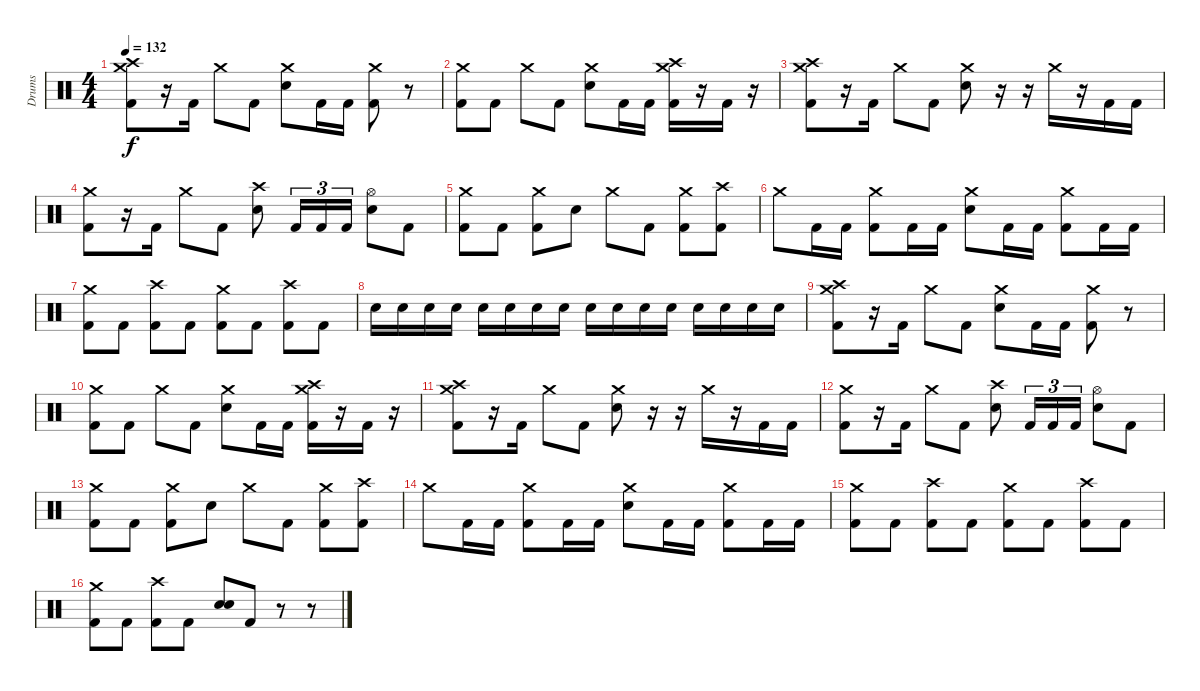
\track ("Drums" "Drums") {instrument percussion}
\staff {score}
\articulation defaults
\ts (4 4)
\tempo 132
\clef neutral
\ks c
("Crash medium (hit)" "Crash high (hit)" "Kick (hit) 2").8{dy f} r.16 "Kick (hit) 2".16 "Crash medium (hit)".8 "Kick (hit) 2".8 ("Crash medium (hit)" "Electric Snare (hit)").8 "Kick (hit) 2".16 "Kick (hit) 2".16 ("Crash medium (hit)" "Kick (hit) 2").8 r.8 |
("Crash medium (hit)" "Kick (hit) 2").8 "Kick (hit) 2".8 "Crash medium (hit)".8 "Kick (hit) 2".8 ("Crash medium (hit)" "Electric Snare (hit)").8 "Kick (hit) 2".16 "Kick (hit) 2".16 ("Crash medium (hit)" "Crash high (hit)" "Kick (hit) 2").16 r.16 "Kick (hit) 2".16 r.16 |
("Crash medium (hit)" "Crash high (hit)" "Kick (hit) 2").8 r.16 "Kick (hit) 2".16 "Crash medium (hit)".8 "Kick (hit) 2".8 ("Crash medium (hit)" "Electric Snare (hit)").8 r.16 r.16 "Crash medium (hit)".16 r.16 "Kick (hit) 2".16 "Kick (hit) 2".16 |
("Crash medium (hit)" "Kick (hit) 2").8 r.16 "Kick (hit) 2".16 "Crash medium (hit)".8 "Kick (hit) 2".8 ("Crash high (hit)" "Electric Snare (hit)").8 "Kick (hit) 2".16{tu (3 2)} "Kick (hit) 2".16{tu (3 2)} "Kick (hit) 2".16{tu (3 2)} ("Hi-Hat (open)" "Electric Snare (hit)").8 "Kick (hit) 2".8 |
("Crash medium (hit)" "Kick (hit) 2").8 "Kick (hit) 2".8 ("Crash medium (hit)" "Kick (hit) 2").8 "Electric Snare (hit)".8 "Crash medium (hit)".8 "Kick (hit) 2".8 ("Crash medium (hit)" "Kick (hit) 2").8 ("Crash high (hit)" "Kick (hit) 2").8 |
"Crash medium (hit)".8 "Kick (hit) 2".16 "Kick (hit) 2".16 ("Crash medium (hit)" "Kick (hit) 2").8 "Kick (hit) 2".16 "Kick (hit) 2".16 ("Crash medium (hit)" "Electric Snare (hit)").8 "Kick (hit) 2".16 "Kick (hit) 2".16 ("Crash medium (hit)" "Kick (hit) 2").8 "Kick (hit) 2".16 "Kick (hit) 2".16 |
("Crash medium (hit)" "Kick (hit) 2").8 "Kick (hit) 2".8 ("Crash high (hit)" "Kick (hit) 2").8 "Kick (hit) 2".8 ("Crash medium (hit)" "Kick (hit) 2").8 "Kick (hit) 2".8 ("Crash high (hit)" "Kick (hit) 2").8 "Kick (hit) 2".8 |
"Electric Snare (hit)".16 "Electric Snare (hit)".16 "Electric Snare (hit)".16 "Electric Snare (hit)".16 "Electric Snare (hit)".16 "Electric Snare (hit)".16 "Electric Snare (hit)".16 "Electric Snare (hit)".16 "Electric Snare (hit)".16 "Electric Snare (hit)".16 "Electric Snare (hit)".16 "Electric Snare (hit)".16 "Electric Snare (hit)".16 "Electric Snare (hit)".16 "Electric Snare (hit)".16 "Electric Snare (hit)".16 |
("Crash medium (hit)" "Crash high (hit)" "Kick (hit) 2").8 r.16 "Kick (hit) 2".16 "Crash medium (hit)".8 "Kick (hit) 2".8 ("Crash medium (hit)" "Electric Snare (hit)").8 "Kick (hit) 2".16 "Kick (hit) 2".16 ("Crash medium (hit)" "Kick (hit) 2").8 r.8 |
("Crash medium (hit)" "Kick (hit) 2").8 "Kick (hit) 2".8 "Crash medium (hit)".8 "Kick (hit) 2".8 ("Crash medium (hit)" "Electric Snare (hit)").8 "Kick (hit) 2".16 "Kick (hit) 2".16 ("Crash medium (hit)" "Crash high (hit)" "Kick (hit) 2").16 r.16 "Kick (hit) 2".16 r.16 |
("Crash medium (hit)" "Crash high (hit)" "Kick (hit) 2").8 r.16 "Kick (hit) 2".16 "Crash medium (hit)".8 "Kick (hit) 2".8 ("Crash medium (hit)" "Electric Snare (hit)").8 r.16 r.16 "Crash medium (hit)".16 r.16 "Kick (hit) 2".16 "Kick (hit) 2".16 |
("Crash medium (hit)" "Kick (hit) 2").8 r.16 "Kick (hit) 2".16 "Crash medium (hit)".8 "Kick (hit) 2".8 ("Crash high (hit)" "Electric Snare (hit)").8 "Kick (hit) 2".16{tu (3 2)} "Kick (hit) 2".16{tu (3 2)} "Kick (hit) 2".16{tu (3 2)} ("Hi-Hat (open)" "Electric Snare (hit)").8 "Kick (hit) 2".8 |
("Crash medium (hit)" "Kick (hit) 2").8 "Kick (hit) 2".8 ("Crash medium (hit)" "Kick (hit) 2").8 "Electric Snare (hit)".8 "Crash medium (hit)".8 "Kick (hit) 2".8 ("Crash medium (hit)" "Kick (hit) 2").8 ("Crash high (hit)" "Kick (hit) 2").8 |
"Crash medium (hit)".8 "Kick (hit) 2".16 "Kick (hit) 2".16 ("Crash medium (hit)" "Kick (hit) 2").8 "Kick (hit) 2".16 "Kick (hit) 2".16 ("Crash medium (hit)" "Electric Snare (hit)").8 "Kick (hit) 2".16 "Kick (hit) 2".16 ("Crash medium (hit)" "Kick (hit) 2").8 "Kick (hit) 2".16 "Kick (hit) 2".16 |
("Crash medium (hit)" "Kick (hit) 2").8 "Kick (hit) 2".8 ("Crash high (hit)" "Kick (hit) 2").8 "Kick (hit) 2".8 ("Crash medium (hit)" "Kick (hit) 2").8 "Kick (hit) 2".8 ("Crash high (hit)" "Kick (hit) 2").8 "Kick (hit) 2".8 |
("Crash medium (hit)" "Kick (hit) 2").8 "Kick (hit) 2".8 ("Crash high (hit)" "Kick (hit) 2").8 "Kick (hit) 2".8 ("Electric Snare (hit)" "Electric Snare (hit)").8{bd 480} "Kick (hit) 2".8 r.8 r.8
